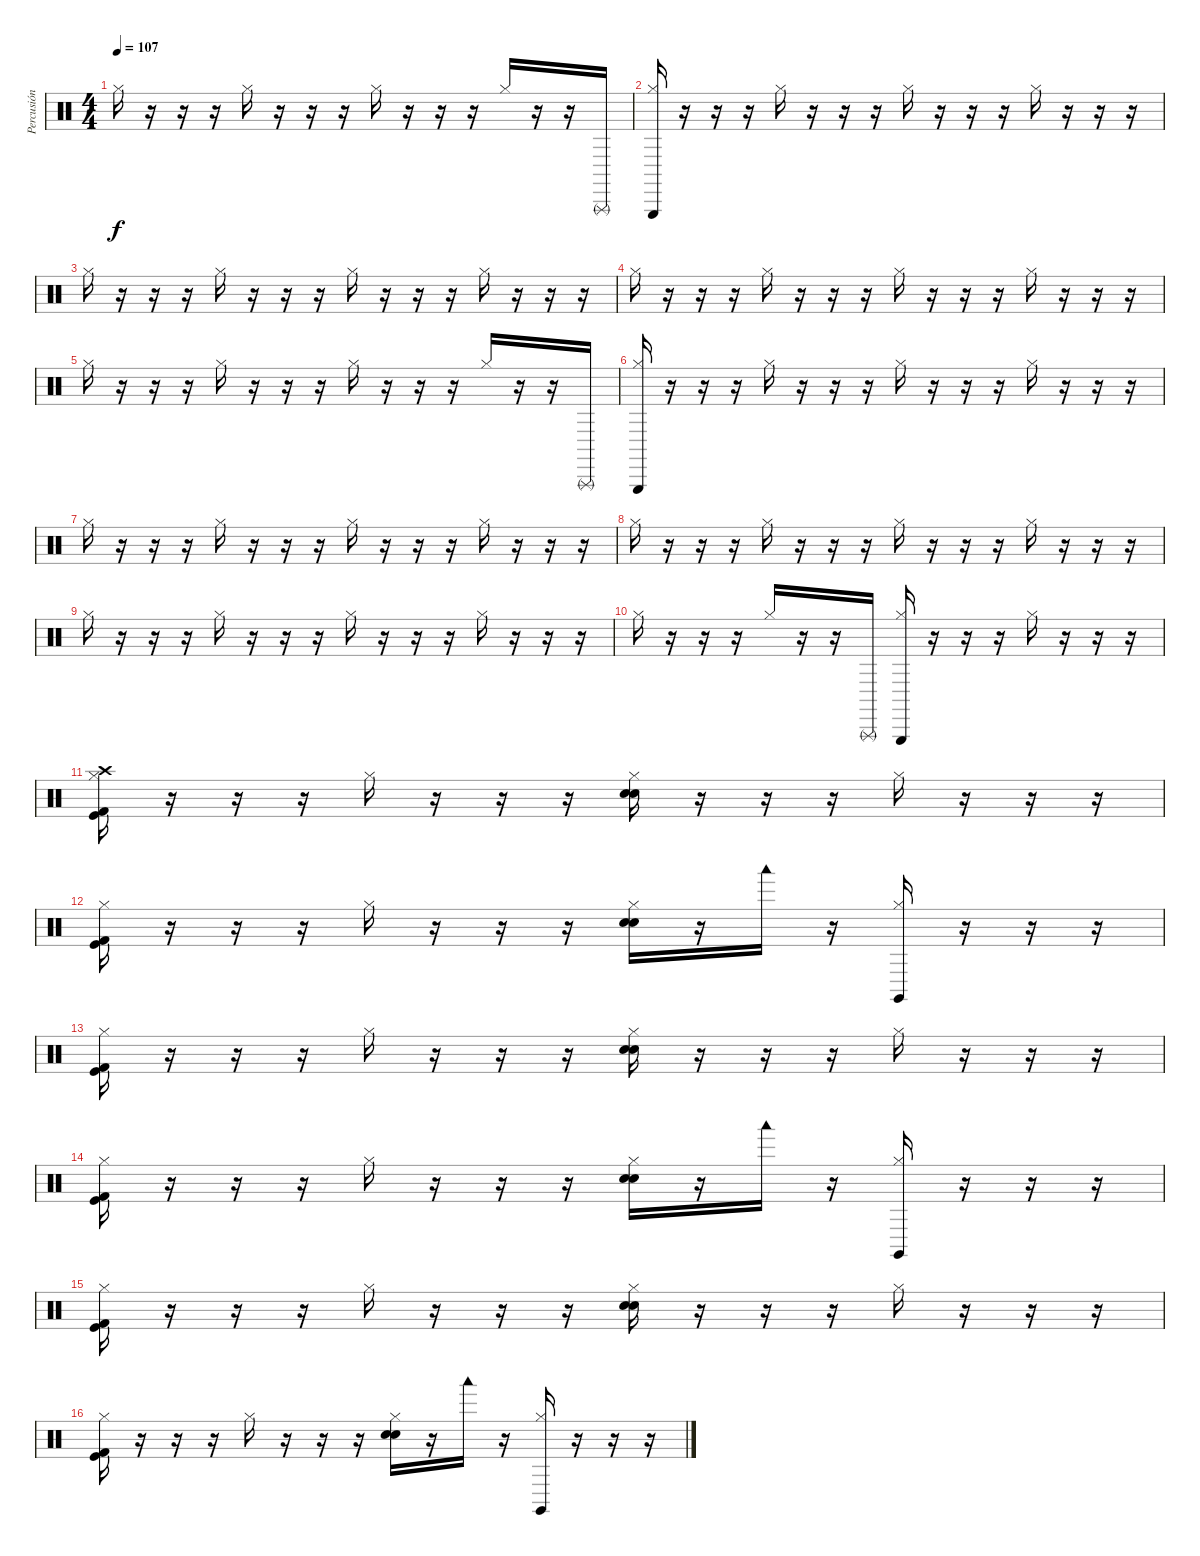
\track ("Percusión" "Percusión") {instrument percussion}
\staff {score}
\articulation defaults
\ts (4 4)
\tempo 107
\clef neutral
\ks c "Hi-Hat (closed)".16{dy f}
r.16 r.16 r.16 "Hi-Hat (closed)".16 r.16 r.16 r.16 "Hi-Hat (closed)".16 r.16 r.16 r.16 "Hi-Hat (closed)".16 r.16 r.16 "Triangle (rnute)".16 |
("Hi-Hat (closed)" "Triangle (hit)").16 r.16 r.16 r.16 "Hi-Hat (closed)".16 r.16 r.16 r.16 "Hi-Hat (closed)".16 r.16 r.16 r.16 "Hi-Hat (closed)".16 r.16 r.16 r.16 |
"Hi-Hat (closed)".16 r.16 r.16 r.16 "Hi-Hat (closed)".16 r.16 r.16 r.16 "Hi-Hat (closed)".16 r.16 r.16 r.16 "Hi-Hat (closed)".16 r.16 r.16 r.16 |
"Hi-Hat (closed)".16 r.16 r.16 r.16 "Hi-Hat (closed)".16 r.16 r.16 r.16 "Hi-Hat (closed)".16 r.16 r.16 r.16 "Hi-Hat (closed)".16 r.16 r.16 r.16 |
"Hi-Hat (closed)".16 r.16 r.16 r.16 "Hi-Hat (closed)".16 r.16 r.16 r.16 "Hi-Hat (closed)".16 r.16 r.16 r.16 "Hi-Hat (closed)".16 r.16 r.16 "Triangle (rnute)".16 |
("Hi-Hat (closed)" "Triangle (hit)").16 r.16 r.16 r.16 "Hi-Hat (closed)".16 r.16 r.16 r.16 "Hi-Hat (closed)".16 r.16 r.16 r.16 "Hi-Hat (closed)".16 r.16 r.16 r.16 |
"Hi-Hat (closed)".16 r.16 r.16 r.16 "Hi-Hat (closed)".16 r.16 r.16 r.16 "Hi-Hat (closed)".16 r.16 r.16 r.16 "Hi-Hat (closed)".16 r.16 r.16 r.16 |
"Hi-Hat (closed)".16 r.16 r.16 r.16 "Hi-Hat (closed)".16 r.16 r.16 r.16 "Hi-Hat (closed)".16 r.16 r.16 r.16 "Hi-Hat (closed)".16 r.16 r.16 r.16 |
"Hi-Hat (closed)".16 r.16 r.16 r.16 "Hi-Hat (closed)".16 r.16 r.16 r.16 "Hi-Hat (closed)".16 r.16 r.16 r.16 "Hi-Hat (closed)".16 r.16 r.16 r.16 |
"Hi-Hat (closed)".16 r.16 r.16 r.16 "Hi-Hat (closed)".16 r.16 r.16 "Triangle (rnute)".16 ("Hi-Hat (closed)" "Triangle (hit)").16 r.16 r.16 r.16 "Hi-Hat (closed)".16 r.16 r.16 r.16 |
("Hi-Hat (closed)" "Crash high (hit)" "Kick (hit) 2" "Kick (hit)").16 r.16 r.16 r.16 "Hi-Hat (closed)".16 r.16 r.16 r.16 ("Hi-Hat (closed)" "Snare (hit) 2" "Electric Snare (hit)").16 r.16 r.16 r.16 "Hi-Hat (closed)".16 r.16 r.16 r.16 |
("Hi-Hat (closed)" "Kick (hit) 2" "Kick (hit)").16 r.16 r.16 r.16 "Hi-Hat (closed)".16 r.16 r.16 r.16 ("Hi-Hat (closed)" "Snare (hit) 2" "Electric Snare (hit)").16 r.16 "Woodblock low (hit)".16 r.16 ("Hi-Hat (closed)" "Claves (hit)").16 r.16 r.16 r.16 |
("Hi-Hat (closed)" "Kick (hit) 2" "Kick (hit)").16 r.16 r.16 r.16 "Hi-Hat (closed)".16 r.16 r.16 r.16 ("Hi-Hat (closed)" "Snare (hit) 2" "Electric Snare (hit)").16 r.16 r.16 r.16 "Hi-Hat (closed)".16 r.16 r.16 r.16 |
("Hi-Hat (closed)" "Kick (hit) 2" "Kick (hit)").16 r.16 r.16 r.16 "Hi-Hat (closed)".16 r.16 r.16 r.16 ("Hi-Hat (closed)" "Snare (hit) 2" "Electric Snare (hit)").16 r.16 "Woodblock low (hit)".16 r.16 ("Hi-Hat (closed)" "Claves (hit)").16 r.16 r.16 r.16 |
("Hi-Hat (closed)" "Kick (hit) 2" "Kick (hit)").16 r.16 r.16 r.16 "Hi-Hat (closed)".16 r.16 r.16 r.16 ("Hi-Hat (closed)" "Snare (hit) 2" "Electric Snare (hit)").16 r.16 r.16 r.16 "Hi-Hat (closed)".16 r.16 r.16 r.16 |
("Hi-Hat (closed)" "Kick (hit) 2" "Kick (hit)").16 r.16 r.16 r.16 "Hi-Hat (closed)".16 r.16 r.16 r.16 ("Hi-Hat (closed)" "Snare (hit) 2" "Electric Snare (hit)").16 r.16 "Woodblock low (hit)".16 r.16 ("Hi-Hat (closed)" "Claves (hit)").16 r.16 r.16 r.16
